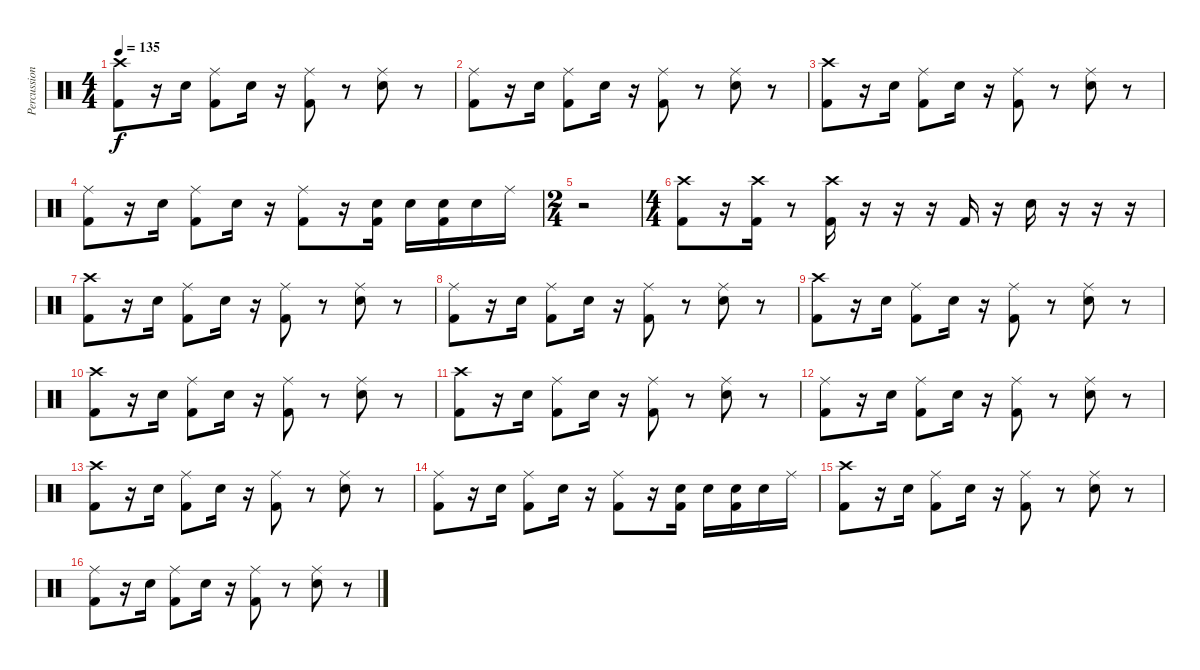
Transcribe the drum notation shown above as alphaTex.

\track ("Percussions" "Percussion") {instrument percussion}
\staff {score}
\articulation defaults
\ts (4 4)
\tempo 135
\clef neutral
\ks c
("Crash high (hit)" "Kick (hit) 2").8{dy f} r.16 "Snare (hit) 2".16 ("Ride (middle)" "Kick (hit) 2").8 "Snare (hit) 2".16 r.16 ("Ride (middle)" "Kick (hit) 2").8 r.8 ("Ride (middle)" "Snare (hit) 2").8 r.8 |
("Ride (middle)" "Kick (hit) 2").8 r.16 "Snare (hit) 2".16 ("Ride (middle)" "Kick (hit) 2").8 "Snare (hit) 2".16 r.16 ("Ride (middle)" "Kick (hit) 2").8 r.8 ("Ride (middle)" "Snare (hit) 2").8 r.8 |
("Crash high (hit)" "Kick (hit) 2").8 r.16 "Snare (hit) 2".16 ("Ride (middle)" "Kick (hit) 2").8 "Snare (hit) 2".16 r.16 ("Ride (middle)" "Kick (hit) 2").8 r.8 ("Ride (middle)" "Snare (hit) 2").8 r.8 |
("Ride (middle)" "Kick (hit) 2").8 r.16 "Snare (hit) 2".16 ("Ride (middle)" "Kick (hit) 2").8 "Snare (hit) 2".16 r.16 ("Ride (middle)" "Kick (hit) 2").8 r.16 ("Snare (hit) 2" "Kick (hit) 2").16 "Snare (hit) 2".16 ("Snare (hit) 2" "Kick (hit) 2").16 "Snare (hit) 2".16 "Ride (middle)".16 |
\ts (2 4)
r.2 |
\ts (4 4)
("Crash high (hit)" "Kick (hit) 2").8 r.16 ("Crash high (hit)" "Kick (hit) 2").16 r.8 ("Crash high (hit)" "Kick (hit) 2").16 r.16 r.16 r.16 "Kick (hit) 2".16 r.16 "Electric Snare (hit)".16 r.16 r.16 r.16 |
("Crash high (hit)" "Kick (hit) 2").8 r.16 "Snare (hit) 2".16 ("Ride (middle)" "Kick (hit) 2").8 "Snare (hit) 2".16 r.16 ("Ride (middle)" "Kick (hit) 2").8 r.8 ("Ride (middle)" "Snare (hit) 2").8 r.8 |
("Ride (middle)" "Kick (hit) 2").8 r.16 "Snare (hit) 2".16 ("Ride (middle)" "Kick (hit) 2").8 "Snare (hit) 2".16 r.16 ("Ride (middle)" "Kick (hit) 2").8 r.8 ("Ride (middle)" "Snare (hit) 2").8 r.8 |
("Crash high (hit)" "Kick (hit) 2").8 r.16 "Snare (hit) 2".16 ("Ride (middle)" "Kick (hit) 2").8 "Snare (hit) 2".16 r.16 ("Ride (middle)" "Kick (hit) 2").8 r.8 ("Ride (middle)" "Snare (hit) 2").8 r.8 |
("Crash high (hit)" "Kick (hit) 2").8 r.16 "Snare (hit) 2".16 ("Ride (middle)" "Kick (hit) 2").8 "Snare (hit) 2".16 r.16 ("Ride (middle)" "Kick (hit) 2").8 r.8 ("Ride (middle)" "Snare (hit) 2").8 r.8 |
("Crash high (hit)" "Kick (hit) 2").8 r.16 "Snare (hit) 2".16 ("Ride (middle)" "Kick (hit) 2").8 "Snare (hit) 2".16 r.16 ("Ride (middle)" "Kick (hit) 2").8 r.8 ("Ride (middle)" "Snare (hit) 2").8 r.8 |
("Ride (middle)" "Kick (hit) 2").8 r.16 "Snare (hit) 2".16 ("Ride (middle)" "Kick (hit) 2").8 "Snare (hit) 2".16 r.16 ("Ride (middle)" "Kick (hit) 2").8 r.8 ("Ride (middle)" "Snare (hit) 2").8 r.8 |
("Crash high (hit)" "Kick (hit) 2").8 r.16 "Snare (hit) 2".16 ("Ride (middle)" "Kick (hit) 2").8 "Snare (hit) 2".16 r.16 ("Ride (middle)" "Kick (hit) 2").8 r.8 ("Ride (middle)" "Snare (hit) 2").8 r.8 |
("Ride (middle)" "Kick (hit) 2").8 r.16 "Snare (hit) 2".16 ("Ride (middle)" "Kick (hit) 2").8 "Snare (hit) 2".16 r.16 ("Ride (middle)" "Kick (hit) 2").8 r.16 ("Snare (hit) 2" "Kick (hit) 2").16 "Snare (hit) 2".16 ("Snare (hit) 2" "Kick (hit) 2").16 "Snare (hit) 2".16 "Ride (middle)".16 |
("Crash high (hit)" "Kick (hit) 2").8 r.16 "Snare (hit) 2".16 ("Ride (middle)" "Kick (hit) 2").8 "Snare (hit) 2".16 r.16 ("Ride (middle)" "Kick (hit) 2").8 r.8 ("Ride (middle)" "Snare (hit) 2").8 r.8 |
("Ride (middle)" "Kick (hit) 2").8 r.16 "Snare (hit) 2".16 ("Ride (middle)" "Kick (hit) 2").8 "Snare (hit) 2".16 r.16 ("Ride (middle)" "Kick (hit) 2").8 r.8 ("Ride (middle)" "Snare (hit) 2").8 r.8
